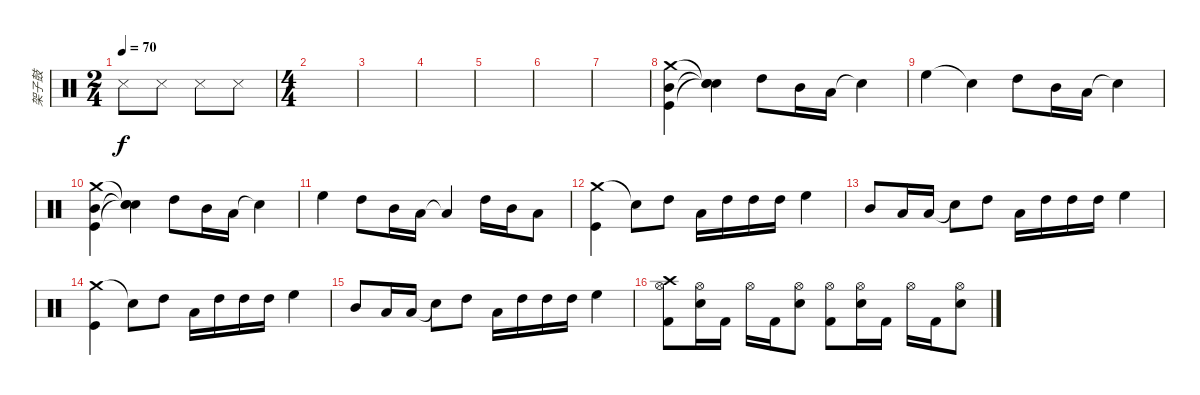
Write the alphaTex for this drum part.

\track ("架子鼓" "架子鼓") {instrument percussion}
\staff {score}
\articulation defaults
\ts (2 4)
\tempo 70
\clef neutral
\ks c "Metronome (hit)".8{dy f} "Metronome (hit)".8 "Metronome (hit)".8 "Metronome (hit)".8
|
\ts (4 4)
|
|
|
|
|
|
("Crash medium (hit)" "Mid Tom (hit)" "Kick (hit)").4 ("Snare (hit)"{t} "Snare (hit)"{t} "Snare (hit)"{t}).4 "High Tom (hit)".8 "Mid Tom (hit)".16 "Low Tom (hit)".16 "Snare (hit)"{t}.4 |
"High Floor Tom (hit)".4 "Snare (hit)"{t}.4 "High Tom (hit)".8 "Mid Tom (hit)".16 "Low Tom (hit)".16 "Snare (hit)"{t}.4 |
("Crash medium (hit)" "Mid Tom (hit)" "Kick (hit)").4 ("Snare (hit)"{t} "Snare (hit)"{t} "Snare (hit)"{t}).4 "High Tom (hit)".8 "Mid Tom (hit)".16 "Low Tom (hit)".16 "Snare (hit)"{t}.4 |
"High Floor Tom (hit)".4 "High Tom (hit)".8 "Mid Tom (hit)".16 "Low Tom (hit)".16 "Low Tom (hit)"{t}.4 "High Tom (hit)".16 "Mid Tom (hit)".16 "Low Tom (hit)".8 |
("Crash medium (hit)" "Kick (hit)").4 "Snare (hit)"{t}.8 "High Tom (hit)".8 "Low Tom (hit)".16 "High Tom (hit)".16 "High Tom (hit)".16 "High Tom (hit)".16 "High Floor Tom (hit)".4 |
"Mid Tom (hit)".8 "Low Tom (hit)".16 "Low Tom (hit)".16 "Snare (hit)"{t}.8 "High Tom (hit)".8 "Low Tom (hit)".16 "High Tom (hit)".16 "High Tom (hit)".16 "High Tom (hit)".16 "High Floor Tom (hit)".4 |
("Crash medium (hit)" "Kick (hit)").4 "Snare (hit)"{t}.8 "High Tom (hit)".8 "Low Tom (hit)".16 "High Tom (hit)".16 "High Tom (hit)".16 "High Tom (hit)".16 "High Floor Tom (hit)".4 |
"Mid Tom (hit)".8 "Low Tom (hit)".16 "Low Tom (hit)".16 "Snare (hit)"{t}.8 "High Tom (hit)".8 "Low Tom (hit)".16 "High Tom (hit)".16 "High Tom (hit)".16 "High Tom (hit)".16 "High Floor Tom (hit)".4 |
("Crash high (hit)" "Hi-Hat (open)" "Kick (hit) 2").8 ("Hi-Hat (open)" "Snare (hit) 2").16 "Kick (hit) 2".16 "Hi-Hat (open)".16 "Kick (hit) 2".16 ("Hi-Hat (open)" "Snare (hit) 2").8 ("Hi-Hat (open)" "Kick (hit) 2").8 ("Hi-Hat (open)" "Snare (hit) 2").16 "Kick (hit) 2".16 "Hi-Hat (open)".16 "Kick (hit) 2".16 ("Hi-Hat (open)" "Snare (hit) 2").8
